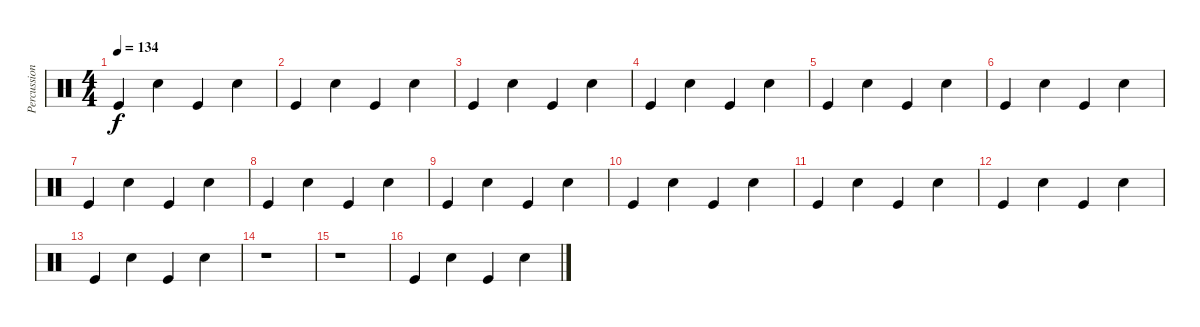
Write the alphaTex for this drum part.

\track ("Percussions" "Percussion") {instrument percussion}
\staff {score}
\articulation defaults
\ts (4 4)
\tempo 134
\clef neutral
\ks c "Kick (hit)".4{dy f} "Snare (hit) 2".4 "Kick (hit)".4 "Snare (hit) 2".4
|
"Kick (hit)".4 "Snare (hit) 2".4 "Kick (hit)".4 "Snare (hit) 2".4 |
"Kick (hit)".4 "Snare (hit) 2".4 "Kick (hit)".4 "Snare (hit) 2".4 |
"Kick (hit)".4 "Snare (hit) 2".4 "Kick (hit)".4 "Snare (hit) 2".4 |
"Kick (hit)".4 "Snare (hit) 2".4 "Kick (hit)".4 "Snare (hit) 2".4 |
"Kick (hit)".4 "Snare (hit) 2".4 "Kick (hit)".4 "Snare (hit) 2".4 |
"Kick (hit)".4 "Snare (hit) 2".4 "Kick (hit)".4 "Snare (hit) 2".4 |
"Kick (hit)".4 "Snare (hit) 2".4 "Kick (hit)".4 "Snare (hit) 2".4 |
"Kick (hit)".4 "Snare (hit) 2".4 "Kick (hit)".4 "Snare (hit) 2".4 |
"Kick (hit)".4 "Snare (hit) 2".4 "Kick (hit)".4 "Snare (hit) 2".4 |
"Kick (hit)".4 "Snare (hit) 2".4 "Kick (hit)".4 "Snare (hit) 2".4 |
"Kick (hit)".4 "Snare (hit) 2".4 "Kick (hit)".4 "Snare (hit) 2".4 |
"Kick (hit)".4 "Snare (hit) 2".4 "Kick (hit)".4 "Snare (hit) 2".4 |
r.1 |
r.1 |
"Kick (hit)".4 "Snare (hit) 2".4 "Kick (hit)".4 "Snare (hit) 2".4
